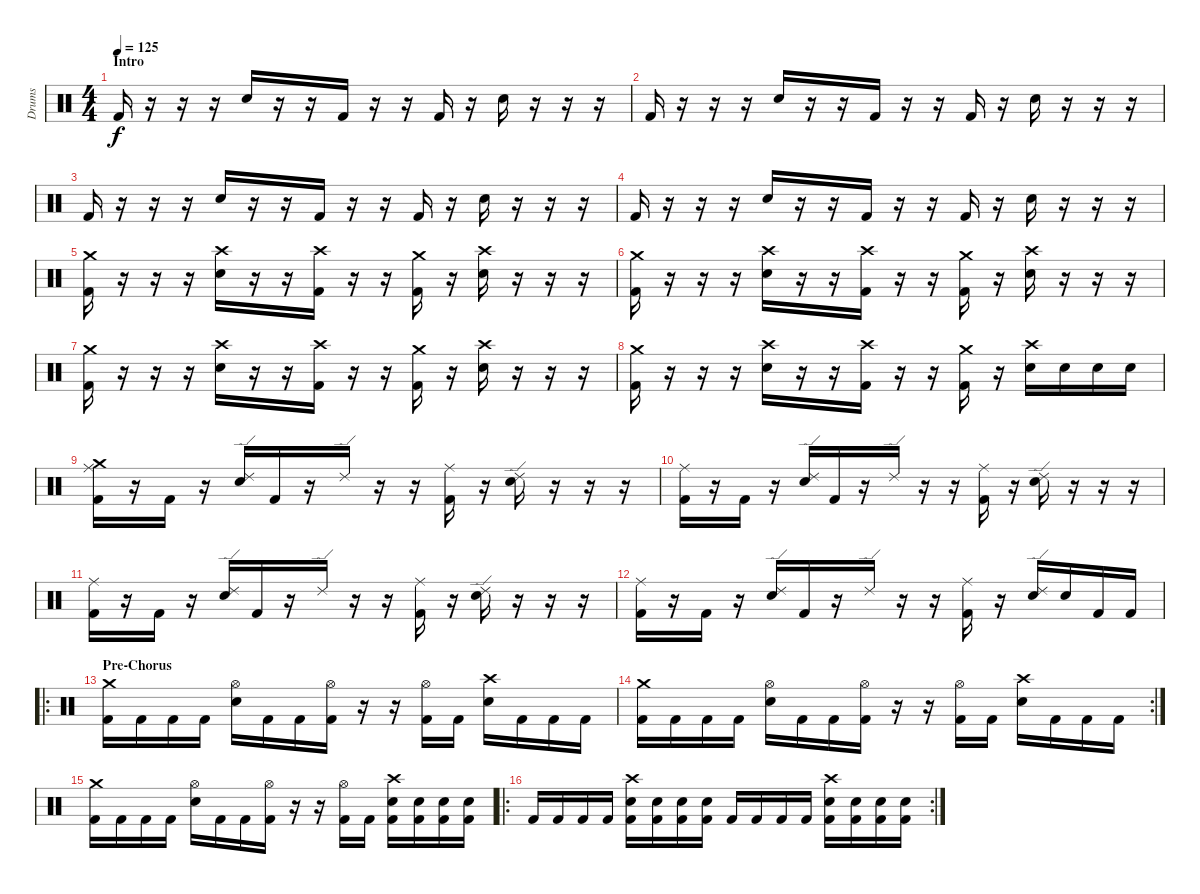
\track ("Drums" "Drums") {instrument percussion}
\staff {score}
\articulation defaults
\ts (4 4)
\section ("" "Intro")
\tempo 125
\clef neutral
\ks c "Kick (hit) 2".16{dy f volume 4}
r.16 r.16 r.16 "Electric Snare (hit)".16 r.16 r.16 "Kick (hit) 2".16 r.16 r.16 "Kick (hit) 2".16 r.16 "Electric Snare (hit)".16 r.16 r.16 r.16 |
"Kick (hit) 2".16{volume 6} r.16 r.16 r.16 "Electric Snare (hit)".16 r.16 r.16 "Kick (hit) 2".16 r.16 r.16 "Kick (hit) 2".16 r.16 "Electric Snare (hit)".16 r.16 r.16 r.16 |
"Kick (hit) 2".16{volume 14} r.16 r.16 r.16 "Electric Snare (hit)".16 r.16 r.16 "Kick (hit) 2".16 r.16 r.16 "Kick (hit) 2".16 r.16 "Electric Snare (hit)".16 r.16 r.16 r.16 |
"Kick (hit) 2".16 r.16 r.16 r.16 "Electric Snare (hit)".16 r.16 r.16 "Kick (hit) 2".16 r.16 r.16 "Kick (hit) 2".16 r.16 "Electric Snare (hit)".16 r.16 r.16 r.16 |
("Crash medium (hit)" "Kick (hit) 2").16 r.16 r.16 r.16 ("Crash high (hit)" "Electric Snare (hit)").16 r.16 r.16 ("Crash high (hit)" "Kick (hit) 2").16 r.16 r.16 ("Crash medium (hit)" "Kick (hit) 2").16 r.16 ("Crash high (hit)" "Electric Snare (hit)").16 r.16 r.16 r.16 |
("Crash medium (hit)" "Kick (hit) 2").16 r.16 r.16 r.16 ("Crash high (hit)" "Electric Snare (hit)").16 r.16 r.16 ("Crash high (hit)" "Kick (hit) 2").16 r.16 r.16 ("Crash medium (hit)" "Kick (hit) 2").16 r.16 ("Crash high (hit)" "Electric Snare (hit)").16 r.16 r.16 r.16 |
("Crash medium (hit)" "Kick (hit) 2").16 r.16 r.16 r.16 ("Crash high (hit)" "Electric Snare (hit)").16 r.16 r.16 ("Crash high (hit)" "Kick (hit) 2").16 r.16 r.16 ("Crash medium (hit)" "Kick (hit) 2").16 r.16 ("Crash high (hit)" "Electric Snare (hit)").16 r.16 r.16 r.16 |
("Crash medium (hit)" "Kick (hit) 2").16 r.16 r.16 r.16 ("Crash high (hit)" "Electric Snare (hit)").16 r.16 r.16 ("Crash high (hit)" "Kick (hit) 2").16 r.16 r.16 ("Crash medium (hit)" "Kick (hit) 2").16 r.16 ("Crash high (hit)" "Electric Snare (hit)").16 "Electric Snare (hit)".16 "Electric Snare (hit)".16 "Electric Snare (hit)".16 |
("Crash medium (hit)" "Ride (middle)" "Kick (hit) 2").16 r.16 "Kick (hit) 2".16 r.16 ("Ride (edge) 2" "Electric Snare (hit)").16 "Kick (hit) 2".16 r.16 "Ride (edge) 2".16 r.16 r.16 ("Ride (middle)" "Kick (hit) 2").16 r.16 ("Ride (edge) 2" "Electric Snare (hit)").16 r.16 r.16 r.16 |
("Ride (middle)" "Kick (hit) 2").16 r.16 "Kick (hit) 2".16 r.16 ("Ride (edge) 2" "Electric Snare (hit)").16 "Kick (hit) 2".16 r.16 "Ride (edge) 2".16 r.16 r.16 ("Ride (middle)" "Kick (hit) 2").16 r.16 ("Ride (edge) 2" "Electric Snare (hit)").16 r.16 r.16 r.16 |
("Ride (middle)" "Kick (hit) 2").16 r.16 "Kick (hit) 2".16 r.16 ("Ride (edge) 2" "Electric Snare (hit)").16 "Kick (hit) 2".16 r.16 "Ride (edge) 2".16 r.16 r.16 ("Ride (middle)" "Kick (hit) 2").16 r.16 ("Ride (edge) 2" "Electric Snare (hit)").16 r.16 r.16 r.16 |
("Ride (middle)" "Kick (hit) 2").16 r.16 "Kick (hit) 2".16 r.16 ("Ride (edge) 2" "Electric Snare (hit)").16 "Kick (hit) 2".16 r.16 "Ride (edge) 2".16 r.16 r.16 ("Ride (middle)" "Kick (hit) 2").16 r.16 ("Ride (edge) 2" "Electric Snare (hit)").16 "Electric Snare (hit)".16 "Kick (hit) 2".16 "Kick (hit) 2".16 |
\ro
\section ("" "Pre-Chorus")
("Crash medium (hit)" "Kick (hit) 2").16 "Kick (hit) 2".16 "Kick (hit) 2".16 "Kick (hit) 2".16 ("Hi-Hat (open)" "Electric Snare (hit)").16 "Kick (hit) 2".16 "Kick (hit) 2".16 ("Hi-Hat (open)" "Kick (hit) 2").16 r.16 r.16 ("Hi-Hat (open)" "Kick (hit) 2").16 "Kick (hit) 2".16 ("Crash high (hit)" "Electric Snare (hit)").16 "Kick (hit) 2".16 "Kick (hit) 2".16 "Kick (hit) 2".16 |
\rc 2
("Crash medium (hit)" "Kick (hit) 2").16 "Kick (hit) 2".16 "Kick (hit) 2".16 "Kick (hit) 2".16 ("Hi-Hat (open)" "Electric Snare (hit)").16 "Kick (hit) 2".16 "Kick (hit) 2".16 ("Hi-Hat (open)" "Kick (hit) 2").16 r.16 r.16 ("Hi-Hat (open)" "Kick (hit) 2").16 "Kick (hit) 2".16 ("Crash high (hit)" "Electric Snare (hit)").16 "Kick (hit) 2".16 "Kick (hit) 2".16 "Kick (hit) 2".16 |
("Crash medium (hit)" "Kick (hit) 2").16 "Kick (hit) 2".16 "Kick (hit) 2".16 "Kick (hit) 2".16 ("Hi-Hat (open)" "Electric Snare (hit)").16 "Kick (hit) 2".16 "Kick (hit) 2".16 ("Hi-Hat (open)" "Kick (hit) 2").16 r.16 r.16 ("Hi-Hat (open)" "Kick (hit) 2").16 "Kick (hit) 2".16 ("Crash high (hit)" "Electric Snare (hit)" "Kick (hit) 2").16 ("Electric Snare (hit)" "Kick (hit) 2").16 ("Electric Snare (hit)" "Kick (hit) 2").16 ("Electric Snare (hit)" "Kick (hit) 2").16 |
\ro
\rc 2 "Kick (hit) 2".16 "Kick (hit) 2".16 "Kick (hit) 2".16 "Kick (hit) 2".16
("Crash high (hit)" "Electric Snare (hit)" "Kick (hit) 2").16 ("Electric Snare (hit)" "Kick (hit) 2").16 ("Electric Snare (hit)" "Kick (hit) 2").16 ("Electric Snare (hit)" "Kick (hit) 2").16 "Kick (hit) 2".16 "Kick (hit) 2".16 "Kick (hit) 2".16 "Kick (hit) 2".16 ("Crash high (hit)" "Electric Snare (hit)" "Kick (hit) 2").16 ("Electric Snare (hit)" "Kick (hit) 2").16 ("Electric Snare (hit)" "Kick (hit) 2").16 ("Electric Snare (hit)" "Kick (hit) 2").16
